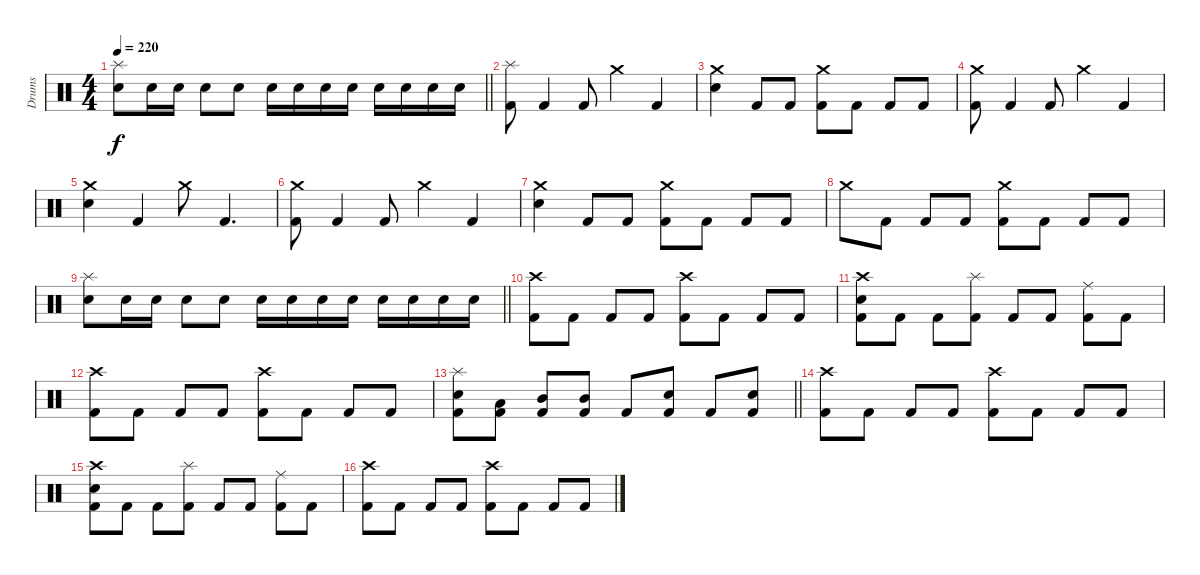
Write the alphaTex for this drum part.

\track ("Drums" "Drums") {instrument percussion}
\staff {score}
\articulation defaults
\ts (4 4)
\tempo 220
\clef neutral
\barLineRight lightlight
\ks c
("Splash (hit)" "Electric Snare (hit)").8{dy f} "Electric Snare (hit)".16 "Electric Snare (hit)".16 "Electric Snare (hit)".8 "Electric Snare (hit)".8 "Electric Snare (hit)".16 "Electric Snare (hit)".16 "Electric Snare (hit)".16 "Electric Snare (hit)".16 "Electric Snare (hit)".16 "Electric Snare (hit)".16 "Electric Snare (hit)".16 "Electric Snare (hit)".16 |
\section ("" "")
("Splash (hit)" "Kick (hit) 2").8 "Kick (hit) 2".4 "Kick (hit) 2".8 "Crash medium (hit)".4 "Kick (hit) 2".4 |
("Crash medium (hit)" "Electric Snare (hit)").4 "Kick (hit) 2".8 "Kick (hit) 2".8 ("Crash medium (hit)" "Kick (hit) 2").8 "Kick (hit) 2".8 "Kick (hit) 2".8 "Kick (hit) 2".8 |
("Crash medium (hit)" "Kick (hit) 2").8 "Kick (hit) 2".4 "Kick (hit) 2".8 "Crash medium (hit)".4 "Kick (hit) 2".4 |
("Crash medium (hit)" "Electric Snare (hit)").4 "Kick (hit) 2".4 "Crash medium (hit)".8 "Kick (hit) 2".4{d} |
("Crash medium (hit)" "Kick (hit) 2").8 "Kick (hit) 2".4 "Kick (hit) 2".8 "Crash medium (hit)".4 "Kick (hit) 2".4 |
("Crash medium (hit)" "Electric Snare (hit)").4 "Kick (hit) 2".8 "Kick (hit) 2".8 ("Crash medium (hit)" "Kick (hit) 2").8 "Kick (hit) 2".8 "Kick (hit) 2".8 "Kick (hit) 2".8 |
"Crash medium (hit)".8 "Kick (hit) 2".8 "Kick (hit) 2".8 "Kick (hit) 2".8 ("Crash medium (hit)" "Kick (hit) 2").8 "Kick (hit) 2".8 "Kick (hit) 2".8 "Kick (hit) 2".8 |
\barLineRight lightlight
("Splash (hit)" "Electric Snare (hit)").8 "Electric Snare (hit)".16 "Electric Snare (hit)".16 "Electric Snare (hit)".8 "Electric Snare (hit)".8 "Electric Snare (hit)".16 "Electric Snare (hit)".16 "Electric Snare (hit)".16 "Electric Snare (hit)".16 "Electric Snare (hit)".16 "Electric Snare (hit)".16 "Electric Snare (hit)".16 "Electric Snare (hit)".16 |
\section ("" "")
("Crash high (hit)" "Kick (hit) 2").8 "Kick (hit) 2".8 "Kick (hit) 2".8 "Kick (hit) 2".8 ("Crash high (hit)" "Kick (hit) 2").8 "Kick (hit) 2".8 "Kick (hit) 2".8 "Kick (hit) 2".8 |
("Crash high (hit)" "Electric Snare (hit)" "Kick (hit) 2").8 "Kick (hit) 2".8 "Kick (hit) 2".8 ("Splash (hit)" "Kick (hit) 2").8 "Kick (hit) 2".8 "Kick (hit) 2".8 ("Ride (middle)" "Kick (hit) 2").8 "Kick (hit) 2".8 |
("Crash high (hit)" "Kick (hit) 2").8 "Kick (hit) 2".8 "Kick (hit) 2".8 "Kick (hit) 2".8 ("Crash high (hit)" "Kick (hit) 2").8 "Kick (hit) 2".8 "Kick (hit) 2".8 "Kick (hit) 2".8 |
\barLineRight lightlight
("Splash (hit)" "Electric Snare (hit)" "Kick (hit) 2").8 ("Low Tom (hit)" "Kick (hit) 2").8 ("Mid Tom (hit)" "Kick (hit) 2").8 ("Mid Tom (hit)" "Kick (hit) 2").8 "Kick (hit) 2".8 ("Electric Snare (hit)" "Kick (hit) 2").8 "Kick (hit) 2".8 ("Electric Snare (hit)" "Kick (hit) 2").8 |
("Crash high (hit)" "Kick (hit) 2").8 "Kick (hit) 2".8 "Kick (hit) 2".8 "Kick (hit) 2".8 ("Crash high (hit)" "Kick (hit) 2").8 "Kick (hit) 2".8 "Kick (hit) 2".8 "Kick (hit) 2".8 |
("Crash high (hit)" "Electric Snare (hit)" "Kick (hit) 2").8 "Kick (hit) 2".8 "Kick (hit) 2".8 ("Splash (hit)" "Kick (hit) 2").8 "Kick (hit) 2".8 "Kick (hit) 2".8 ("Ride (middle)" "Kick (hit) 2").8 "Kick (hit) 2".8 |
("Crash high (hit)" "Kick (hit) 2").8 "Kick (hit) 2".8 "Kick (hit) 2".8 "Kick (hit) 2".8 ("Crash high (hit)" "Kick (hit) 2").8 "Kick (hit) 2".8 "Kick (hit) 2".8 "Kick (hit) 2".8
